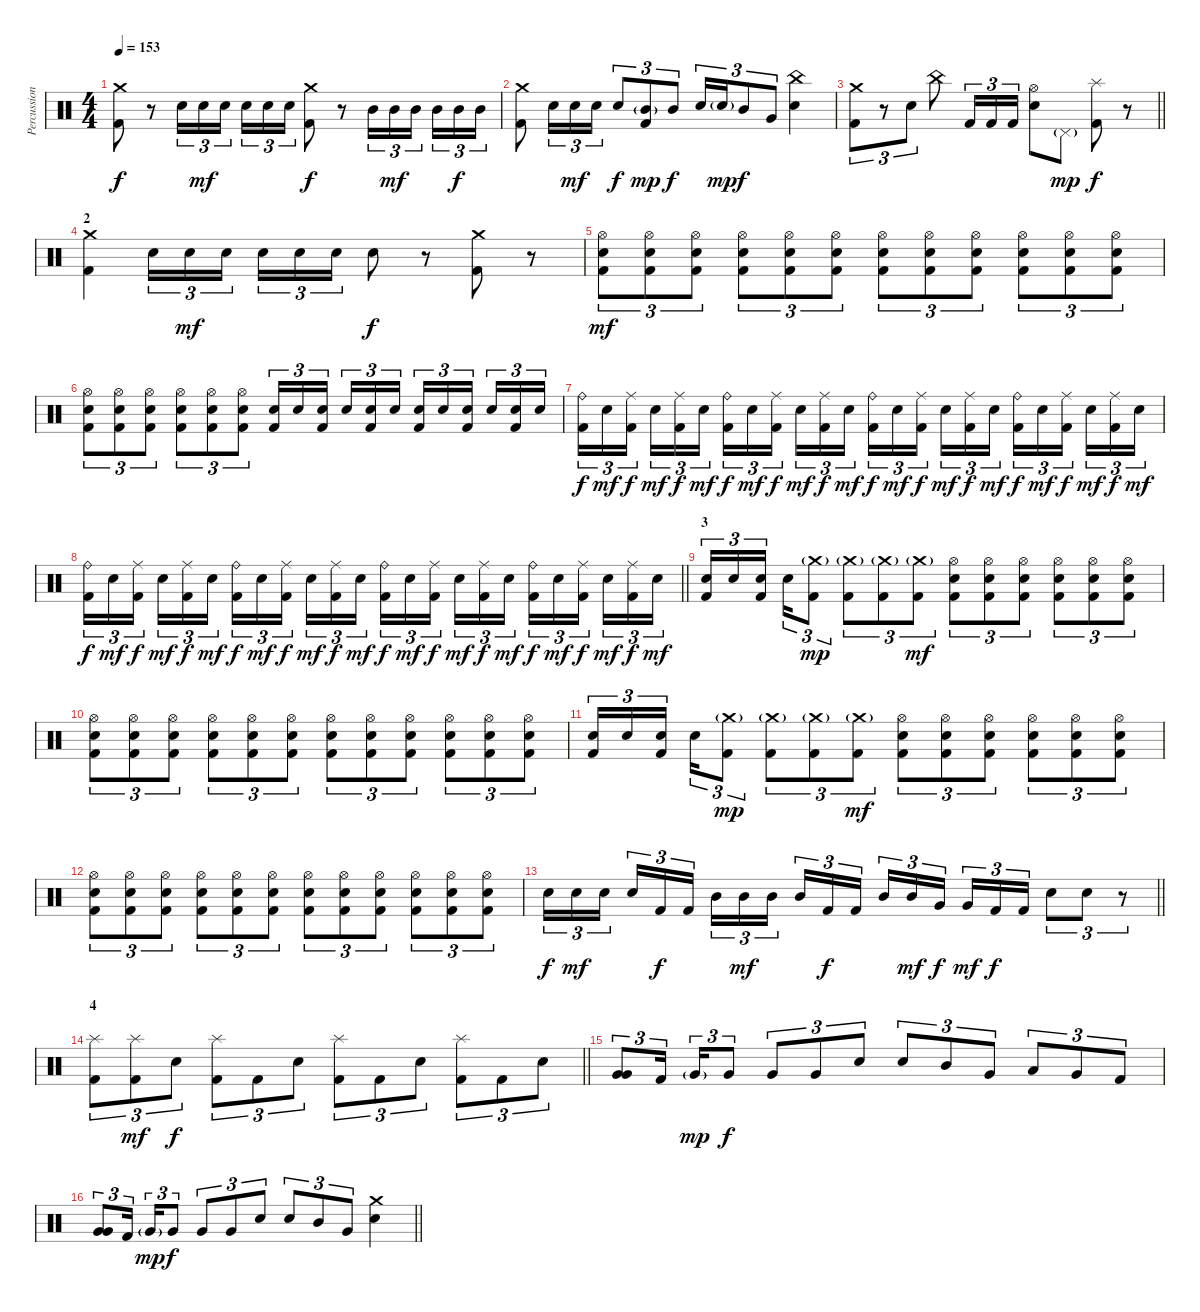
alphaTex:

\track ("Percussion" "Percussion") {instrument percussion}
\staff {score}
\articulation defaults
\ts (4 4)
\tempo 153
\clef neutral
\ks c
("Crash medium (hit)" "Kick (hit) 2").8{dy f} r.8 "Snare (hit) 2".16{tu (3 2)} "Snare (hit) 2".16{tu (3 2) dy mf} "Snare (hit) 2".16{tu (3 2) beam splitsecondary} "Snare (hit) 2".16{tu (3 2)} "Snare (hit) 2".16{tu (3 2)} "Snare (hit) 2".16{tu (3 2)} ("Crash medium (hit)" "Kick (hit) 2").8{dy f} r.8 "Mid Tom (hit)".16{tu (3 2)} "Mid Tom (hit)".16{tu (3 2) dy mf} "Mid Tom (hit)".16{tu (3 2) beam splitsecondary} "Mid Tom (hit)".16{tu (3 2)} "Mid Tom (hit)".16{tu (3 2) dy f} "Mid Tom (hit)".16{tu (3 2)} |
("Crash medium (hit)" "Kick (hit) 2").8 "Snare (hit) 2".16{tu (3 2)} "Snare (hit) 2".16{tu (3 2) dy mf} "Snare (hit) 2".16{tu (3 2)} "Snare (hit) 2".8{tu (3 2) dy f} ("Mid Tom (hit)"{g} "Kick (hit) 2").8{tu (3 2) dy mp} "Mid Tom (hit)".8{tu (3 2) dy f} "Snare (hit) 2".16{tu (3 2)} "Snare (hit) 2"{g}.16{tu (3 2) dy mp} "Mid Tom (hit)".8{tu (3 2) dy f} "Very Low Tom (hit)".8{tu (3 2)} ("China (hit)" "Snare (hit) 2").4 |
\barLineRight lightlight
("Crash medium (hit)" "Kick (hit) 2").8{tu (3 2)} r.8{tu (3 2)} "Snare (hit) 2".8{tu (3 2)} "China (hit)".8 "Kick (hit) 2".16{tu (3 2)} "Kick (hit) 2".16{tu (3 2)} "Kick (hit) 2".16{tu (3 2)} ("Hi-Hat (open)" "Snare (hit) 2").8 "Pedal Hi-Hat (hit)"{g}.8{dy mp} ("Splash (hit)" "Kick (hit) 2").8{dy f} r.8 |
\section ("" "2")
("Crash medium (hit)" "Kick (hit) 2").4 "Snare (hit) 2".16{tu (3 2)} "Snare (hit) 2".16{tu (3 2) dy mf} "Snare (hit) 2".16{tu (3 2) beam splitsecondary} "Snare (hit) 2".16{tu (3 2)} "Snare (hit) 2".16{tu (3 2)} "Snare (hit) 2".16{tu (3 2)} "Snare (hit) 2".8{dy f} r.8 ("Crash medium (hit)" "Kick (hit) 2").8 r.8 |
("Hi-Hat (open)" "Snare (hit) 2" "Kick (hit) 2").8{tu (3 2) dy mf} ("Hi-Hat (open)" "Snare (hit) 2" "Kick (hit) 2").8{tu (3 2)} ("Hi-Hat (open)" "Snare (hit) 2" "Kick (hit) 2").8{tu (3 2)} ("Hi-Hat (open)" "Snare (hit) 2" "Kick (hit) 2").8{tu (3 2)} ("Hi-Hat (open)" "Snare (hit) 2" "Kick (hit) 2").8{tu (3 2)} ("Hi-Hat (open)" "Snare (hit) 2" "Kick (hit) 2").8{tu (3 2)} ("Hi-Hat (open)" "Snare (hit) 2" "Kick (hit) 2").8{tu (3 2)} ("Hi-Hat (open)" "Snare (hit) 2" "Kick (hit) 2").8{tu (3 2)} ("Hi-Hat (open)" "Snare (hit) 2" "Kick (hit) 2").8{tu (3 2)} ("Hi-Hat (open)" "Snare (hit) 2" "Kick (hit) 2").8{tu (3 2)} ("Hi-Hat (open)" "Snare (hit) 2" "Kick (hit) 2").8{tu (3 2)} ("Hi-Hat (open)" "Snare (hit) 2" "Kick (hit) 2").8{tu (3 2)} |
("Hi-Hat (open)" "Snare (hit) 2" "Kick (hit) 2").8{tu (3 2)} ("Hi-Hat (open)" "Snare (hit) 2" "Kick (hit) 2").8{tu (3 2)} ("Hi-Hat (open)" "Snare (hit) 2" "Kick (hit) 2").8{tu (3 2)} ("Hi-Hat (open)" "Snare (hit) 2" "Kick (hit) 2").8{tu (3 2)} ("Hi-Hat (open)" "Snare (hit) 2" "Kick (hit) 2").8{tu (3 2)} ("Hi-Hat (open)" "Snare (hit) 2" "Kick (hit) 2").8{tu (3 2)} ("Snare (hit) 2" "Kick (hit) 2").16{tu (3 2)} "Snare (hit) 2".16{tu (3 2)} ("Snare (hit) 2" "Kick (hit) 2").16{tu (3 2) beam splitsecondary} "Snare (hit) 2".16{tu (3 2)} ("Snare (hit) 2" "Kick (hit) 2").16{tu (3 2)} "Snare (hit) 2".16{tu (3 2)} ("Snare (hit) 2" "Kick (hit) 2").16{tu (3 2)} "Snare (hit) 2".16{tu (3 2)} ("Snare (hit) 2" "Kick (hit) 2").16{tu (3 2) beam splitsecondary} "Snare (hit) 2".16{tu (3 2)} ("Snare (hit) 2" "Kick (hit) 2").16{tu (3 2)} "Snare (hit) 2".16{tu (3 2)} |
("Ride (bell)" "Kick (hit) 2").16{tu (3 2) dy f} "Snare (hit) 2".16{tu (3 2) dy mf} ("Ride (middle)" "Kick (hit) 2").16{tu (3 2) dy f beam splitsecondary} "Snare (hit) 2".16{tu (3 2) dy mf} ("Ride (middle)" "Kick (hit) 2").16{tu (3 2) dy f} "Snare (hit) 2".16{tu (3 2) dy mf} ("Ride (bell)" "Kick (hit) 2").16{tu (3 2) dy f} "Snare (hit) 2".16{tu (3 2) dy mf} ("Ride (middle)" "Kick (hit) 2").16{tu (3 2) dy f beam splitsecondary} "Snare (hit) 2".16{tu (3 2) dy mf} ("Ride (middle)" "Kick (hit) 2").16{tu (3 2) dy f} "Snare (hit) 2".16{tu (3 2) dy mf} ("Ride (bell)" "Kick (hit) 2").16{tu (3 2) dy f} "Snare (hit) 2".16{tu (3 2) dy mf} ("Ride (middle)" "Kick (hit) 2").16{tu (3 2) dy f beam splitsecondary} "Snare (hit) 2".16{tu (3 2) dy mf} ("Ride (middle)" "Kick (hit) 2").16{tu (3 2) dy f} "Snare (hit) 2".16{tu (3 2) dy mf} ("Ride (bell)" "Kick (hit) 2").16{tu (3 2) dy f} "Snare (hit) 2".16{tu (3 2) dy mf} ("Ride (middle)" "Kick (hit) 2").16{tu (3 2) dy f beam splitsecondary} "Snare (hit) 2".16{tu (3 2) dy mf} ("Ride (middle)" "Kick (hit) 2").16{tu (3 2) dy f} "Snare (hit) 2".16{tu (3 2) dy mf} |
\barLineRight lightlight
("Ride (bell)" "Kick (hit) 2").16{tu (3 2) dy f} "Snare (hit) 2".16{tu (3 2) dy mf} ("Ride (middle)" "Kick (hit) 2").16{tu (3 2) dy f beam splitsecondary} "Snare (hit) 2".16{tu (3 2) dy mf} ("Ride (middle)" "Kick (hit) 2").16{tu (3 2) dy f} "Snare (hit) 2".16{tu (3 2) dy mf} ("Ride (bell)" "Kick (hit) 2").16{tu (3 2) dy f} "Snare (hit) 2".16{tu (3 2) dy mf} ("Ride (middle)" "Kick (hit) 2").16{tu (3 2) dy f beam splitsecondary} "Snare (hit) 2".16{tu (3 2) dy mf} ("Ride (middle)" "Kick (hit) 2").16{tu (3 2) dy f} "Snare (hit) 2".16{tu (3 2) dy mf} ("Ride (bell)" "Kick (hit) 2").16{tu (3 2) dy f} "Snare (hit) 2".16{tu (3 2) dy mf} ("Ride (middle)" "Kick (hit) 2").16{tu (3 2) dy f beam splitsecondary} "Snare (hit) 2".16{tu (3 2) dy mf} ("Ride (middle)" "Kick (hit) 2").16{tu (3 2) dy f} "Snare (hit) 2".16{tu (3 2) dy mf} ("Ride (bell)" "Kick (hit) 2").16{tu (3 2) dy f} "Snare (hit) 2".16{tu (3 2) dy mf} ("Ride (middle)" "Kick (hit) 2").16{tu (3 2) dy f beam splitsecondary} "Snare (hit) 2".16{tu (3 2) dy mf} ("Ride (middle)" "Kick (hit) 2").16{tu (3 2) dy f} "Snare (hit) 2".16{tu (3 2) dy mf} |
\section ("" "3")
("Snare (hit) 2" "Kick (hit) 2").16{tu (3 2)} "Snare (hit) 2".16{tu (3 2)} ("Snare (hit) 2" "Kick (hit) 2").16{tu (3 2) beam splitsecondary} "Snare (hit) 2".16{tu (3 2)} ("Crash medium (hit)"{g} "Kick (hit) 2").8{tu (3 2) dy mp} ("Crash medium (hit)"{g} "Kick (hit) 2").8{tu (3 2)} ("Crash medium (hit)"{g} "Kick (hit) 2").8{tu (3 2)} ("Crash medium (hit)"{g} "Kick (hit) 2").8{tu (3 2) dy mf} ("Hi-Hat (open)" "Snare (hit) 2" "Kick (hit) 2").8{tu (3 2)} ("Hi-Hat (open)" "Snare (hit) 2" "Kick (hit) 2").8{tu (3 2)} ("Hi-Hat (open)" "Snare (hit) 2" "Kick (hit) 2").8{tu (3 2)} ("Hi-Hat (open)" "Snare (hit) 2" "Kick (hit) 2").8{tu (3 2)} ("Hi-Hat (open)" "Snare (hit) 2" "Kick (hit) 2").8{tu (3 2)} ("Hi-Hat (open)" "Snare (hit) 2" "Kick (hit) 2").8{tu (3 2)} |
("Hi-Hat (open)" "Snare (hit) 2" "Kick (hit) 2").8{tu (3 2)} ("Hi-Hat (open)" "Snare (hit) 2" "Kick (hit) 2").8{tu (3 2)} ("Hi-Hat (open)" "Snare (hit) 2" "Kick (hit) 2").8{tu (3 2)} ("Hi-Hat (open)" "Snare (hit) 2" "Kick (hit) 2").8{tu (3 2)} ("Hi-Hat (open)" "Snare (hit) 2" "Kick (hit) 2").8{tu (3 2)} ("Hi-Hat (open)" "Snare (hit) 2" "Kick (hit) 2").8{tu (3 2)} ("Hi-Hat (open)" "Snare (hit) 2" "Kick (hit) 2").8{tu (3 2)} ("Hi-Hat (open)" "Snare (hit) 2" "Kick (hit) 2").8{tu (3 2)} ("Hi-Hat (open)" "Snare (hit) 2" "Kick (hit) 2").8{tu (3 2)} ("Hi-Hat (open)" "Snare (hit) 2" "Kick (hit) 2").8{tu (3 2)} ("Hi-Hat (open)" "Snare (hit) 2" "Kick (hit) 2").8{tu (3 2)} ("Hi-Hat (open)" "Snare (hit) 2" "Kick (hit) 2").8{tu (3 2)} |
("Snare (hit) 2" "Kick (hit) 2").16{tu (3 2)} "Snare (hit) 2".16{tu (3 2)} ("Snare (hit) 2" "Kick (hit) 2").16{tu (3 2) beam splitsecondary} "Snare (hit) 2".16{tu (3 2)} ("Crash medium (hit)"{g} "Kick (hit) 2").8{tu (3 2) dy mp} ("Crash medium (hit)"{g} "Kick (hit) 2").8{tu (3 2)} ("Crash medium (hit)"{g} "Kick (hit) 2").8{tu (3 2)} ("Crash medium (hit)"{g} "Kick (hit) 2").8{tu (3 2) dy mf} ("Hi-Hat (open)" "Snare (hit) 2" "Kick (hit) 2").8{tu (3 2)} ("Hi-Hat (open)" "Snare (hit) 2" "Kick (hit) 2").8{tu (3 2)} ("Hi-Hat (open)" "Snare (hit) 2" "Kick (hit) 2").8{tu (3 2)} ("Hi-Hat (open)" "Snare (hit) 2" "Kick (hit) 2").8{tu (3 2)} ("Hi-Hat (open)" "Snare (hit) 2" "Kick (hit) 2").8{tu (3 2)} ("Hi-Hat (open)" "Snare (hit) 2" "Kick (hit) 2").8{tu (3 2)} |
("Hi-Hat (open)" "Snare (hit) 2" "Kick (hit) 2").8{tu (3 2)} ("Hi-Hat (open)" "Snare (hit) 2" "Kick (hit) 2").8{tu (3 2)} ("Hi-Hat (open)" "Snare (hit) 2" "Kick (hit) 2").8{tu (3 2)} ("Hi-Hat (open)" "Snare (hit) 2" "Kick (hit) 2").8{tu (3 2)} ("Hi-Hat (open)" "Snare (hit) 2" "Kick (hit) 2").8{tu (3 2)} ("Hi-Hat (open)" "Snare (hit) 2" "Kick (hit) 2").8{tu (3 2)} ("Hi-Hat (open)" "Snare (hit) 2" "Kick (hit) 2").8{tu (3 2)} ("Hi-Hat (open)" "Snare (hit) 2" "Kick (hit) 2").8{tu (3 2)} ("Hi-Hat (open)" "Snare (hit) 2" "Kick (hit) 2").8{tu (3 2)} ("Hi-Hat (open)" "Snare (hit) 2" "Kick (hit) 2").8{tu (3 2)} ("Hi-Hat (open)" "Snare (hit) 2" "Kick (hit) 2").8{tu (3 2)} ("Hi-Hat (open)" "Snare (hit) 2" "Kick (hit) 2").8{tu (3 2)} |
\barLineRight lightlight "Snare (hit) 2".16{tu (3 2) dy f} "Snare (hit) 2".16{tu (3 2) dy mf} "Snare (hit) 2".16{tu (3 2) beam splitsecondary} "Snare (hit) 2".16{tu (3 2)} "Kick (hit) 2".16{tu (3 2) dy f} "Kick (hit) 2".16{tu (3 2)} "Mid Tom (hit)".16{tu (3 2)} "Mid Tom (hit)".16{tu (3 2) dy mf} "Mid Tom (hit)".16{tu (3 2) beam splitsecondary} "Mid Tom (hit)".16{tu (3 2)} "Kick (hit) 2".16{tu (3 2) dy f} "Kick (hit) 2".16{tu (3 2)} "Mid Tom (hit)".16{tu (3 2)} "Mid Tom (hit)".16{tu (3 2) dy mf} "Very Low Tom (hit)".16{tu (3 2) dy f beam splitsecondary} "Very Low Tom (hit)".16{tu (3 2) dy mf} "Kick (hit) 2".16{tu (3 2) dy f} "Kick (hit) 2".16{tu (3 2)} "Snare (hit) 2".8{tu (3 2)} "Snare (hit) 2".8{tu (3 2)}
r.8{tu (3 2)} |
\section ("" "4")
\barLineRight lightlight
("Splash (hit)" "Kick (hit) 2").8{tu (3 2)} ("Splash (hit)" "Kick (hit) 2").8{tu (3 2) dy mf} "Snare (hit) 2".8{tu (3 2) dy f} ("Splash (hit)" "Kick (hit) 2").8{tu (3 2)} "Kick (hit) 2".8{tu (3 2)} "Snare (hit) 2".8{tu (3 2)} ("Splash (hit)" "Kick (hit) 2").8{tu (3 2)} "Kick (hit) 2".8{tu (3 2)} "Snare (hit) 2".8{tu (3 2)} ("Splash (hit)" "Kick (hit) 2").8{tu (3 2)} "Kick (hit) 2".8{tu (3 2)} "Snare (hit) 2".8{tu (3 2)} |
("Very Low Tom (hit)" "Very Low Tom (hit)").8{tu (3 2) bu 60} "Kick (hit) 2".16{tu (3 2) beam splitsecondary} "Very Low Tom (hit)"{g}.16{tu (3 2) dy mp} "Very Low Tom (hit)".8{tu (3 2) dy f} "Very Low Tom (hit)".8{tu (3 2)} "Very Low Tom (hit)".8{tu (3 2)} "Snare (hit) 2".8{tu (3 2)} "Snare (hit) 2".8{tu (3 2)} "Mid Tom (hit)".8{tu (3 2)} "Very Low Tom (hit)".8{tu (3 2)} "Low Tom (hit)".8{tu (3 2)} "Very Low Tom (hit)".8{tu (3 2)} "Kick (hit) 2".8{tu (3 2)} |
\barLineRight lightlight
("Very Low Tom (hit)" "Very Low Tom (hit)").8{tu (3 2) bu 60} "Kick (hit) 2".16{tu (3 2) beam splitsecondary} "Very Low Tom (hit)"{g}.16{tu (3 2) dy mp} "Very Low Tom (hit)".8{tu (3 2) dy f} "Very Low Tom (hit)".8{tu (3 2)} "Very Low Tom (hit)".8{tu (3 2)} "Snare (hit) 2".8{tu (3 2)} "Snare (hit) 2".8{tu (3 2)} "Mid Tom (hit)".8{tu (3 2)} "Very Low Tom (hit)".8{tu (3 2)} ("Crash medium (hit)" "Snare (hit) 2").4
